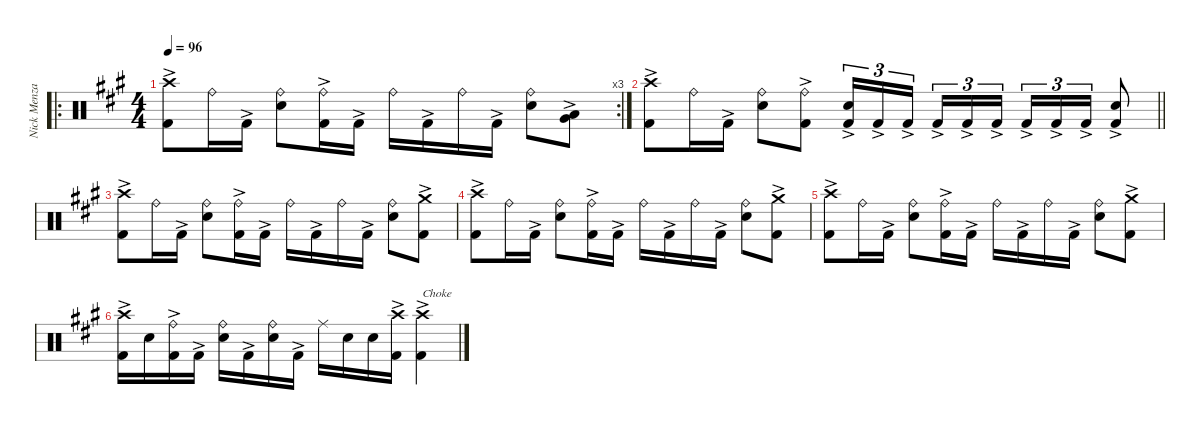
\defaultSystemsLayout 4
\hideDynamics
\bracketExtendMode nobrackets
\firstSystemTrackNameMode fullname
\otherSystemsTrackNameOrientation horizontal
\track ("Nick Menza" "drm.") {instrument percussion}
\staff {score}
\articulation defaults
\ro
\rc 3
\ts (4 4)
\tempo 96
\clef neutral
\ks f#minor
("Crash high (hit)"{acc forcenatural} "Kick (hit) 2"{ac acc forcenatural}).8{dy f beam Down} "Ride (bell)"{acc forcenatural}.16{beam Down} "Kick (hit) 2"{ac acc forcenatural}.16{dy ff beam Down} ("Ride (bell)"{acc forcenatural} "Snare (hit) 2"{acc forcenatural}).8{dy f beam Down} ("Ride (bell)"{acc forcenatural} "Kick (hit) 2"{ac acc forcenatural}).16{beam Down} "Kick (hit) 2"{ac acc forcenatural}.16{dy ff beam Down} "Ride (bell)"{acc forcenatural}.16{dy f beam Down} "Kick (hit) 2"{ac acc forcenatural}.16{dy ff beam Down} "Ride (bell)"{acc forcenatural}.16{dy f beam Down} "Kick (hit) 2"{ac acc forcenatural}.16{dy ff beam Down} ("Ride (bell)"{acc forcenatural} "Snare (hit) 2"{acc forcenatural}).8{dy f beam Down} ("Low Tom (hit)"{ac acc forcenatural} "Very Low Tom (hit)"{ac acc forcenatural}).8{dy ff beam Down} |
\barLineRight lightlight
("Crash high (hit)"{acc forcenatural} "Kick (hit) 2"{ac acc forcenatural}).8{dy f beam Down} "Ride (bell)"{acc forcenatural}.16{beam Down} "Kick (hit) 2"{ac acc forcenatural}.16{dy ff beam Down} ("Ride (bell)"{acc forcenatural} "Snare (hit) 2"{acc forcenatural}).8{dy f beam Down} ("Ride (bell)"{acc forcenatural} "Kick (hit) 2"{ac acc forcenatural}).8{beam Down} ("Snare (hit) 2"{ac acc forcenatural} "Kick (hit) 2"{ac acc forcenatural}).16{tu (3 2) dy ff beam Up} "Kick (hit) 2"{ac acc forcenatural}.16{tu (3 2) beam Up} "Kick (hit) 2"{ac acc forcenatural}.16{tu (3 2) beam Up} "Kick (hit) 2"{ac acc forcenatural}.16{tu (3 2) beam Up} "Kick (hit) 2"{ac acc forcenatural}.16{tu (3 2) beam Up} "Kick (hit) 2"{ac acc forcenatural}.16{tu (3 2) beam Up} "Kick (hit) 2"{ac acc forcenatural}.16{tu (3 2) beam Up} "Kick (hit) 2"{ac acc forcenatural}.16{tu (3 2) beam Up} "Kick (hit) 2"{ac acc forcenatural}.16{tu (3 2) beam Up} ("Snare (hit) 2"{ac acc forcenatural} "Kick (hit) 2"{ac acc forcenatural}).8{beam Up} |
("Crash high (hit)"{acc forcenatural} "Kick (hit) 2"{ac acc forcenatural}).8{dy f beam Down} "Ride (bell)"{acc forcenatural}.16{beam Down} "Kick (hit) 2"{ac acc forcenatural}.16{dy ff beam Down} ("Ride (bell)"{acc forcenatural} "Snare (hit) 2"{acc forcenatural}).8{dy f beam Down} ("Ride (bell)"{acc forcenatural} "Kick (hit) 2"{ac acc forcenatural}).16{beam Down} "Kick (hit) 2"{ac acc forcenatural}.16{dy ff beam Down} "Ride (bell)"{acc forcenatural}.16{dy f beam Down} "Kick (hit) 2"{ac acc forcenatural}.16{dy ff beam Down} "Ride (bell)"{acc forcenatural}.16{dy f beam Down} "Kick (hit) 2"{ac acc forcenatural}.16{dy ff beam Down} ("Ride (bell)"{acc forcenatural} "Snare (hit) 2"{acc forcenatural}).8{dy f beam Down} ("Crash medium (hit)"{acc forcenatural} "Kick (hit) 2"{ac acc forcenatural}).8{beam Down} |
("Crash high (hit)"{acc forcenatural} "Kick (hit) 2"{ac acc forcenatural}).8{beam Down} "Ride (bell)"{acc forcenatural}.16{beam Down} "Kick (hit) 2"{ac acc forcenatural}.16{dy ff beam Down} ("Ride (bell)"{acc forcenatural} "Snare (hit) 2"{acc forcenatural}).8{dy f beam Down} ("Ride (bell)"{acc forcenatural} "Kick (hit) 2"{ac acc forcenatural}).16{beam Down} "Kick (hit) 2"{ac acc forcenatural}.16{dy ff beam Down} "Ride (bell)"{acc forcenatural}.16{dy f beam Down} "Kick (hit) 2"{ac acc forcenatural}.16{dy ff beam Down} "Ride (bell)"{acc forcenatural}.16{dy f beam Down} "Kick (hit) 2"{ac acc forcenatural}.16{dy ff beam Down} ("Ride (bell)"{acc forcenatural} "Snare (hit) 2"{acc forcenatural}).8{dy f beam Down} ("Crash medium (hit)"{acc forcenatural} "Kick (hit) 2"{ac acc forcenatural}).8{beam Down} |
("Crash high (hit)"{acc forcenatural} "Kick (hit) 2"{ac acc forcenatural}).8{beam Down} "Ride (bell)"{acc forcenatural}.16{beam Down} "Kick (hit) 2"{ac acc forcenatural}.16{dy ff beam Down} ("Ride (bell)"{acc forcenatural} "Snare (hit) 2"{acc forcenatural}).8{dy f beam Down} ("Ride (bell)"{acc forcenatural} "Kick (hit) 2"{ac acc forcenatural}).16{beam Down} "Kick (hit) 2"{ac acc forcenatural}.16{dy ff beam Down} "Ride (bell)"{acc forcenatural}.16{dy f beam Down} "Kick (hit) 2"{ac acc forcenatural}.16{dy ff beam Down} "Ride (bell)"{acc forcenatural}.16{dy f beam Down} "Kick (hit) 2"{ac acc forcenatural}.16{dy ff beam Down} ("Ride (bell)"{acc forcenatural} "Snare (hit) 2"{acc forcenatural}).8{dy f beam Down} ("Crash medium (hit)"{acc forcenatural} "Kick (hit) 2"{ac acc forcenatural}).8{beam Down} |
("Crash high (hit)"{acc forcenatural} "Kick (hit) 2"{ac acc forcenatural}).16{beam Down} "Snare (hit) 2"{acc forcenatural}.16{beam Down} ("Ride (bell)"{acc forcenatural} "Kick (hit) 2"{ac acc forcenatural}).16{beam Down} "Kick (hit) 2"{ac acc forcenatural}.16{dy ff beam Down} ("Ride (bell)"{acc forcenatural} "Snare (hit) 2"{acc forcenatural}).16{dy f beam Down} "Kick (hit) 2"{ac acc forcenatural}.16{dy ff beam Down} ("Ride (bell)"{acc forcenatural} "Snare (hit) 2"{acc forcenatural}).16{dy f beam Down} "Kick (hit) 2"{ac acc forcenatural}.16{dy ff beam Down} "Ride (middle)"{acc forcenatural}.16{dy f beam Down} "Snare (hit) 2"{acc forcenatural}.16{beam Down} "Snare (hit) 2"{acc forcenatural}.16{beam Down} ("Crash high (hit)"{acc forcenatural} "Kick (hit) 2"{ac acc forcenatural}).16{beam Down} ("Crash high (hit)"{acc forcenatural} "Kick (hit) 2"{ac acc forcenatural}).4{txt "Choke" beam Down}
